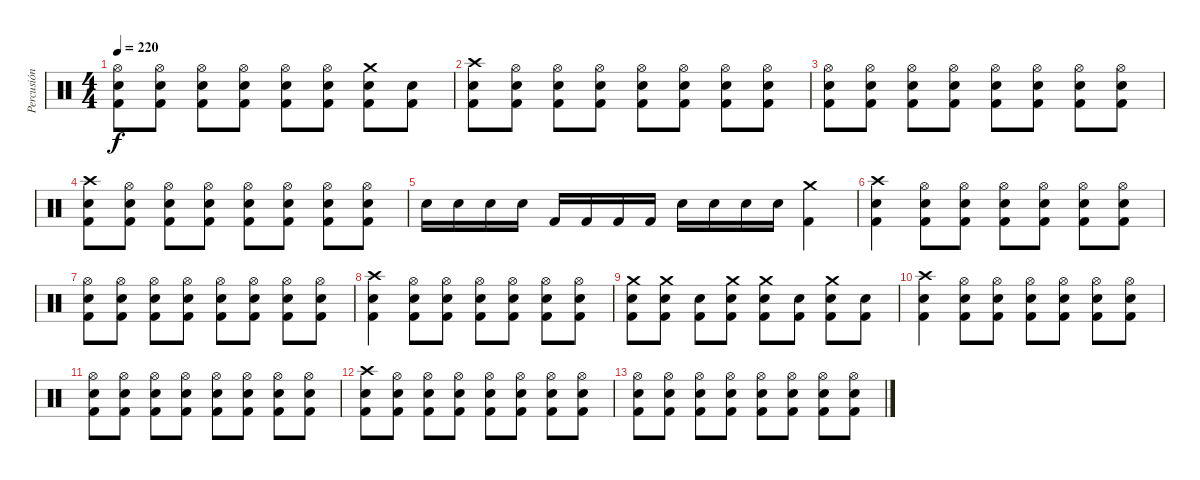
\track ("Percusión" "Percusión") {instrument percussion}
\staff {score}
\articulation defaults
\ts (4 4)
\tempo 220
\clef neutral
\ks c
("Hi-Hat (open)" "Electric Snare (hit)" "Kick (hit) 2").8{dy f} ("Hi-Hat (open)" "Electric Snare (hit)" "Kick (hit) 2").8 ("Hi-Hat (open)" "Electric Snare (hit)" "Kick (hit) 2").8 ("Hi-Hat (open)" "Electric Snare (hit)" "Kick (hit) 2").8 ("Hi-Hat (open)" "Electric Snare (hit)" "Kick (hit) 2").8 ("Hi-Hat (open)" "Electric Snare (hit)" "Kick (hit) 2").8 ("Crash medium (hit)" "Electric Snare (hit)" "Kick (hit) 2").8 ("Electric Snare (hit)" "Kick (hit) 2").8 |
("Crash high (hit)" "Electric Snare (hit)" "Kick (hit) 2").8 ("Hi-Hat (open)" "Electric Snare (hit)" "Kick (hit) 2").8 ("Hi-Hat (open)" "Electric Snare (hit)" "Kick (hit) 2").8 ("Hi-Hat (open)" "Electric Snare (hit)" "Kick (hit) 2").8 ("Hi-Hat (open)" "Electric Snare (hit)" "Kick (hit) 2").8 ("Hi-Hat (open)" "Electric Snare (hit)" "Kick (hit) 2").8 ("Hi-Hat (open)" "Electric Snare (hit)" "Kick (hit) 2").8 ("Hi-Hat (open)" "Electric Snare (hit)" "Kick (hit) 2").8 |
("Hi-Hat (open)" "Electric Snare (hit)" "Kick (hit) 2").8 ("Hi-Hat (open)" "Electric Snare (hit)" "Kick (hit) 2").8 ("Hi-Hat (open)" "Electric Snare (hit)" "Kick (hit) 2").8 ("Hi-Hat (open)" "Electric Snare (hit)" "Kick (hit) 2").8 ("Hi-Hat (open)" "Electric Snare (hit)" "Kick (hit) 2").8 ("Hi-Hat (open)" "Electric Snare (hit)" "Kick (hit) 2").8 ("Hi-Hat (open)" "Electric Snare (hit)" "Kick (hit) 2").8 ("Hi-Hat (open)" "Electric Snare (hit)" "Kick (hit) 2").8 |
("Crash high (hit)" "Electric Snare (hit)" "Kick (hit) 2").8 ("Hi-Hat (open)" "Electric Snare (hit)" "Kick (hit) 2").8 ("Hi-Hat (open)" "Electric Snare (hit)" "Kick (hit) 2").8 ("Hi-Hat (open)" "Electric Snare (hit)" "Kick (hit) 2").8 ("Hi-Hat (open)" "Electric Snare (hit)" "Kick (hit) 2").8 ("Hi-Hat (open)" "Electric Snare (hit)" "Kick (hit) 2").8 ("Hi-Hat (open)" "Electric Snare (hit)" "Kick (hit) 2").8 ("Hi-Hat (open)" "Electric Snare (hit)" "Kick (hit) 2").8 |
"Electric Snare (hit)".16 "Electric Snare (hit)".16 "Electric Snare (hit)".16 "Electric Snare (hit)".16 "Kick (hit) 2".16 "Kick (hit) 2".16 "Kick (hit) 2".16 "Kick (hit) 2".16 "Electric Snare (hit)".16 "Electric Snare (hit)".16 "Electric Snare (hit)".16 "Electric Snare (hit)".16 ("Crash medium (hit)" "Kick (hit) 2").4 |
("Crash high (hit)" "Electric Snare (hit)" "Kick (hit) 2").4 ("Hi-Hat (open)" "Electric Snare (hit)" "Kick (hit) 2").8 ("Hi-Hat (open)" "Electric Snare (hit)" "Kick (hit) 2").8 ("Hi-Hat (open)" "Electric Snare (hit)" "Kick (hit) 2").8 ("Hi-Hat (open)" "Electric Snare (hit)" "Kick (hit) 2").8 ("Hi-Hat (open)" "Electric Snare (hit)" "Kick (hit) 2").8 ("Hi-Hat (open)" "Electric Snare (hit)" "Kick (hit) 2").8 |
("Hi-Hat (open)" "Electric Snare (hit)" "Kick (hit) 2").8 ("Hi-Hat (open)" "Electric Snare (hit)" "Kick (hit) 2").8 ("Hi-Hat (open)" "Electric Snare (hit)" "Kick (hit) 2").8 ("Hi-Hat (open)" "Electric Snare (hit)" "Kick (hit) 2").8 ("Hi-Hat (open)" "Electric Snare (hit)" "Kick (hit) 2").8 ("Hi-Hat (open)" "Electric Snare (hit)" "Kick (hit) 2").8 ("Hi-Hat (open)" "Electric Snare (hit)" "Kick (hit) 2").8 ("Hi-Hat (open)" "Electric Snare (hit)" "Kick (hit) 2").8 |
("Crash high (hit)" "Electric Snare (hit)" "Kick (hit) 2").4 ("Hi-Hat (open)" "Electric Snare (hit)" "Kick (hit) 2").8 ("Hi-Hat (open)" "Electric Snare (hit)" "Kick (hit) 2").8 ("Hi-Hat (open)" "Electric Snare (hit)" "Kick (hit) 2").8 ("Hi-Hat (open)" "Electric Snare (hit)" "Kick (hit) 2").8 ("Hi-Hat (open)" "Electric Snare (hit)" "Kick (hit) 2").8 ("Hi-Hat (open)" "Electric Snare (hit)" "Kick (hit) 2").8 |
("Crash medium (hit)" "Electric Snare (hit)" "Kick (hit) 2").8 ("Crash medium (hit)" "Electric Snare (hit)" "Kick (hit) 2").8 ("Electric Snare (hit)" "Kick (hit) 2").8 ("Crash medium (hit)" "Electric Snare (hit)" "Kick (hit) 2").8 ("Crash medium (hit)" "Electric Snare (hit)" "Kick (hit) 2").8 ("Electric Snare (hit)" "Kick (hit) 2").8 ("Crash medium (hit)" "Electric Snare (hit)" "Kick (hit) 2").8 ("Electric Snare (hit)" "Kick (hit) 2").8 |
("Crash high (hit)" "Electric Snare (hit)" "Kick (hit) 2").4 ("Hi-Hat (open)" "Electric Snare (hit)" "Kick (hit) 2").8 ("Hi-Hat (open)" "Electric Snare (hit)" "Kick (hit) 2").8 ("Hi-Hat (open)" "Electric Snare (hit)" "Kick (hit) 2").8 ("Hi-Hat (open)" "Electric Snare (hit)" "Kick (hit) 2").8 ("Hi-Hat (open)" "Electric Snare (hit)" "Kick (hit) 2").8 ("Hi-Hat (open)" "Electric Snare (hit)" "Kick (hit) 2").8 |
("Hi-Hat (open)" "Electric Snare (hit)" "Kick (hit) 2").8 ("Hi-Hat (open)" "Electric Snare (hit)" "Kick (hit) 2").8 ("Hi-Hat (open)" "Electric Snare (hit)" "Kick (hit) 2").8 ("Hi-Hat (open)" "Electric Snare (hit)" "Kick (hit) 2").8 ("Hi-Hat (open)" "Electric Snare (hit)" "Kick (hit) 2").8 ("Hi-Hat (open)" "Electric Snare (hit)" "Kick (hit) 2").8 ("Hi-Hat (open)" "Electric Snare (hit)" "Kick (hit) 2").8 ("Hi-Hat (open)" "Electric Snare (hit)" "Kick (hit) 2").8 |
("Crash high (hit)" "Electric Snare (hit)" "Kick (hit) 2").8 ("Hi-Hat (open)" "Electric Snare (hit)" "Kick (hit) 2").8 ("Hi-Hat (open)" "Electric Snare (hit)" "Kick (hit) 2").8 ("Hi-Hat (open)" "Electric Snare (hit)" "Kick (hit) 2").8 ("Hi-Hat (open)" "Electric Snare (hit)" "Kick (hit) 2").8 ("Hi-Hat (open)" "Electric Snare (hit)" "Kick (hit) 2").8 ("Hi-Hat (open)" "Electric Snare (hit)" "Kick (hit) 2").8 ("Hi-Hat (open)" "Electric Snare (hit)" "Kick (hit) 2").8 |
("Hi-Hat (open)" "Electric Snare (hit)" "Kick (hit) 2").8 ("Hi-Hat (open)" "Electric Snare (hit)" "Kick (hit) 2").8 ("Hi-Hat (open)" "Electric Snare (hit)" "Kick (hit) 2").8 ("Hi-Hat (open)" "Electric Snare (hit)" "Kick (hit) 2").8 ("Hi-Hat (open)" "Electric Snare (hit)" "Kick (hit) 2").8 ("Hi-Hat (open)" "Electric Snare (hit)" "Kick (hit) 2").8 ("Hi-Hat (open)" "Electric Snare (hit)" "Kick (hit) 2").8 ("Hi-Hat (open)" "Electric Snare (hit)" "Kick (hit) 2").8
